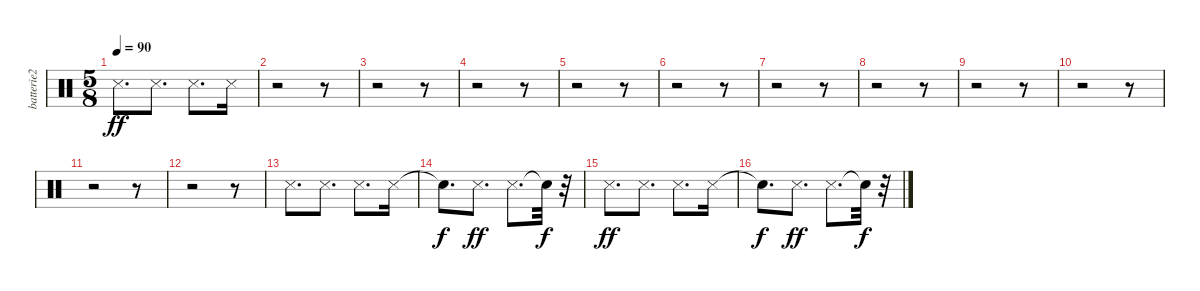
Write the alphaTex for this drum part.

\track ("batterie2" "batterie2") {instrument percussion}
\staff {score}
\articulation defaults
\ts (5 8)
\tempo 90
\clef neutral
\ks c "Snare (side stick) 3".8{d dy ff} "Snare (side stick) 3".8{d} "Snare (side stick) 3".8{d} "Snare (side stick) 3".16
|
r.2 r.8 |
r.2 r.8 |
r.2 r.8 |
r.2 r.8 |
r.2 r.8 |
r.2 r.8 |
r.2 r.8 |
r.2 r.8 |
r.2 r.8 |
r.2 r.8 |
r.2 r.8 |
"Snare (side stick) 3".8{d} "Snare (side stick) 3".8{d} "Snare (side stick) 3".8{d} "Snare (side stick) 3".16 |
"Snare (hit)"{t}.8{d dy f} "Snare (side stick) 3".8{d dy ff} "Snare (side stick) 3".8{d} "Snare (hit)"{t}.32{dy f} r.32 |
"Snare (side stick) 3".8{d dy ff} "Snare (side stick) 3".8{d} "Snare (side stick) 3".8{d} "Snare (side stick) 3".16 |
"Snare (hit)"{t}.8{d dy f} "Snare (side stick) 3".8{d dy ff} "Snare (side stick) 3".8{d} "Snare (hit)"{t}.32{dy f} r.32
